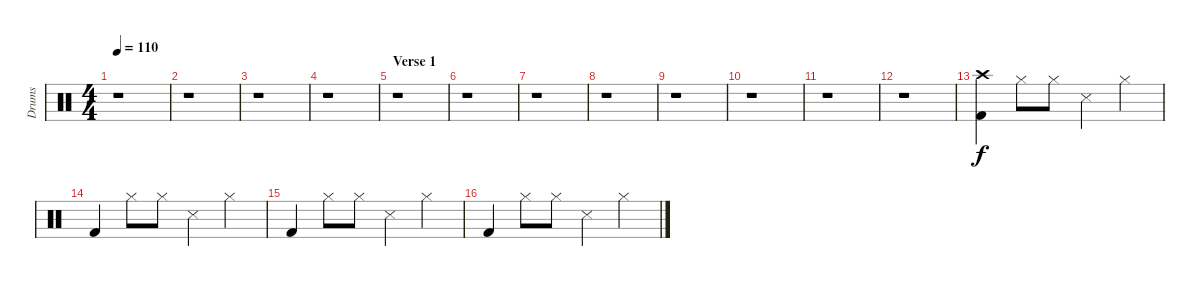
\track ("Drums" "Drums") {instrument percussion}
\staff {score}
\articulation defaults
\ts (4 4)
\tempo 110
\clef neutral
\ks c
r.1{dy f} |
r.1 |
r.1 |
r.1 |
\section ("" "Verse 1")
r.1 |
r.1 |
r.1 |
r.1 |
r.1 |
r.1 |
r.1 |
r.1 |
("Kick (hit) 2" "Crash high (hit)").4 "Hi-Hat (closed)".8 "Hi-Hat (closed)".8 "Snare (side stick) 3".4 "Hi-Hat (closed)".4 |
"Kick (hit) 2".4 "Hi-Hat (closed)".8 "Hi-Hat (closed)".8 "Snare (side stick) 3".4 "Hi-Hat (closed)".4 |
"Kick (hit) 2".4 "Hi-Hat (closed)".8 "Hi-Hat (closed)".8 "Snare (side stick) 3".4 "Hi-Hat (closed)".4 |
"Kick (hit) 2".4 "Hi-Hat (closed)".8 "Hi-Hat (closed)".8 "Snare (side stick) 3".4 "Hi-Hat (closed)".4
